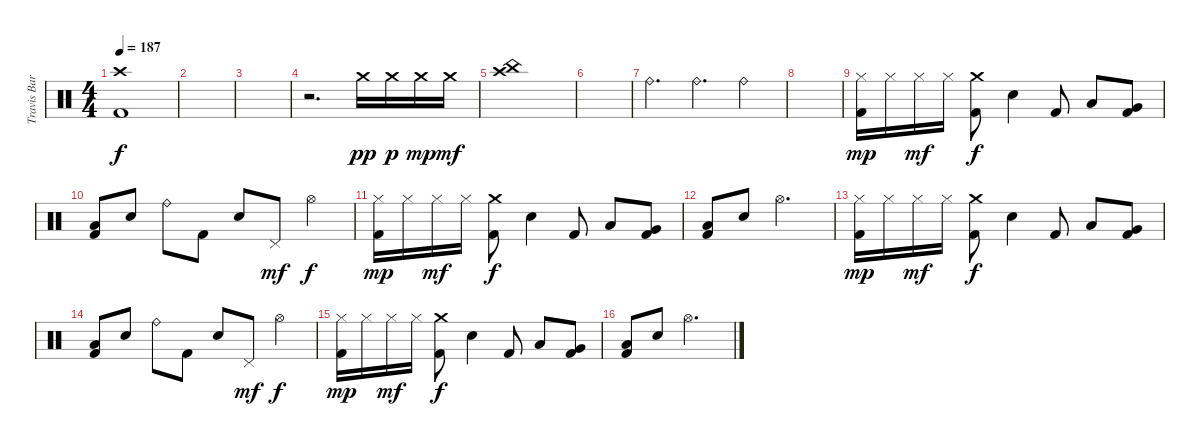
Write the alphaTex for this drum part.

\track ("Travis Barker Drums" "Travis Bar") {instrument percussion}
\staff {score}
\articulation defaults
\ts (4 4)
\tempo 187
\clef neutral
\ks c
("Crash high (hit)" "Kick (hit) 2").1{dy f} |
|
|
r.2{d} "Crash medium (hit)".16{dy pp} "Crash medium (hit)".16{dy p} "Crash medium (hit)".16{dy mp} "Crash medium (hit)".16{dy mf} |
("China (hit)" "Crash high (hit)").1 |
|
"Ride (bell)".4{d} "Ride (bell)".4{d} "Ride (bell)".4 |
|
("Hi-Hat (closed)" "Kick (hit) 2").16{dy mp} "Hi-Hat (closed)".16 "Hi-Hat (closed)".16{dy mf} "Hi-Hat (closed)".16 ("Crash medium (hit)" "Kick (hit) 2").8{dy f} "Electric Snare (hit)".4 "Kick (hit) 2".8 "Low Tom (hit)".8 ("Very Low Tom (hit)" "Kick (hit) 2").8 |
("Low Floor Tom (hit)" "Kick (hit) 2").8 "Electric Snare (hit)".8 "Ride (bell)".8 "Kick (hit) 2".8 "Electric Snare (hit)".8 "Pedal Hi-Hat (hit)".8{dy mf} "Hi-Hat (open)".4{dy f} |
("Hi-Hat (closed)" "Kick (hit) 2").16{dy mp} "Hi-Hat (closed)".16 "Hi-Hat (closed)".16{dy mf} "Hi-Hat (closed)".16 ("Crash medium (hit)" "Kick (hit) 2").8{dy f} "Electric Snare (hit)".4 "Kick (hit) 2".8 "Low Tom (hit)".8 ("Very Low Tom (hit)" "Kick (hit) 2").8 |
("Low Floor Tom (hit)" "Kick (hit) 2").8 "Electric Snare (hit)".8 "Hi-Hat (open)".2{d} |
("Hi-Hat (closed)" "Kick (hit) 2").16{dy mp} "Hi-Hat (closed)".16 "Hi-Hat (closed)".16{dy mf} "Hi-Hat (closed)".16 ("Crash medium (hit)" "Kick (hit) 2").8{dy f} "Electric Snare (hit)".4 "Kick (hit) 2".8 "Low Tom (hit)".8 ("Very Low Tom (hit)" "Kick (hit) 2").8 |
("Low Floor Tom (hit)" "Kick (hit) 2").8 "Electric Snare (hit)".8 "Ride (bell)".8 "Kick (hit) 2".8 "Electric Snare (hit)".8 "Pedal Hi-Hat (hit)".8{dy mf} "Hi-Hat (open)".4{dy f} |
("Hi-Hat (closed)" "Kick (hit) 2").16{dy mp} "Hi-Hat (closed)".16 "Hi-Hat (closed)".16{dy mf} "Hi-Hat (closed)".16 ("Crash medium (hit)" "Kick (hit) 2").8{dy f} "Electric Snare (hit)".4 "Kick (hit) 2".8 "Low Tom (hit)".8 ("Very Low Tom (hit)" "Kick (hit) 2").8 |
("Low Floor Tom (hit)" "Kick (hit) 2").8 "Electric Snare (hit)".8 "Hi-Hat (open)".2{d}
